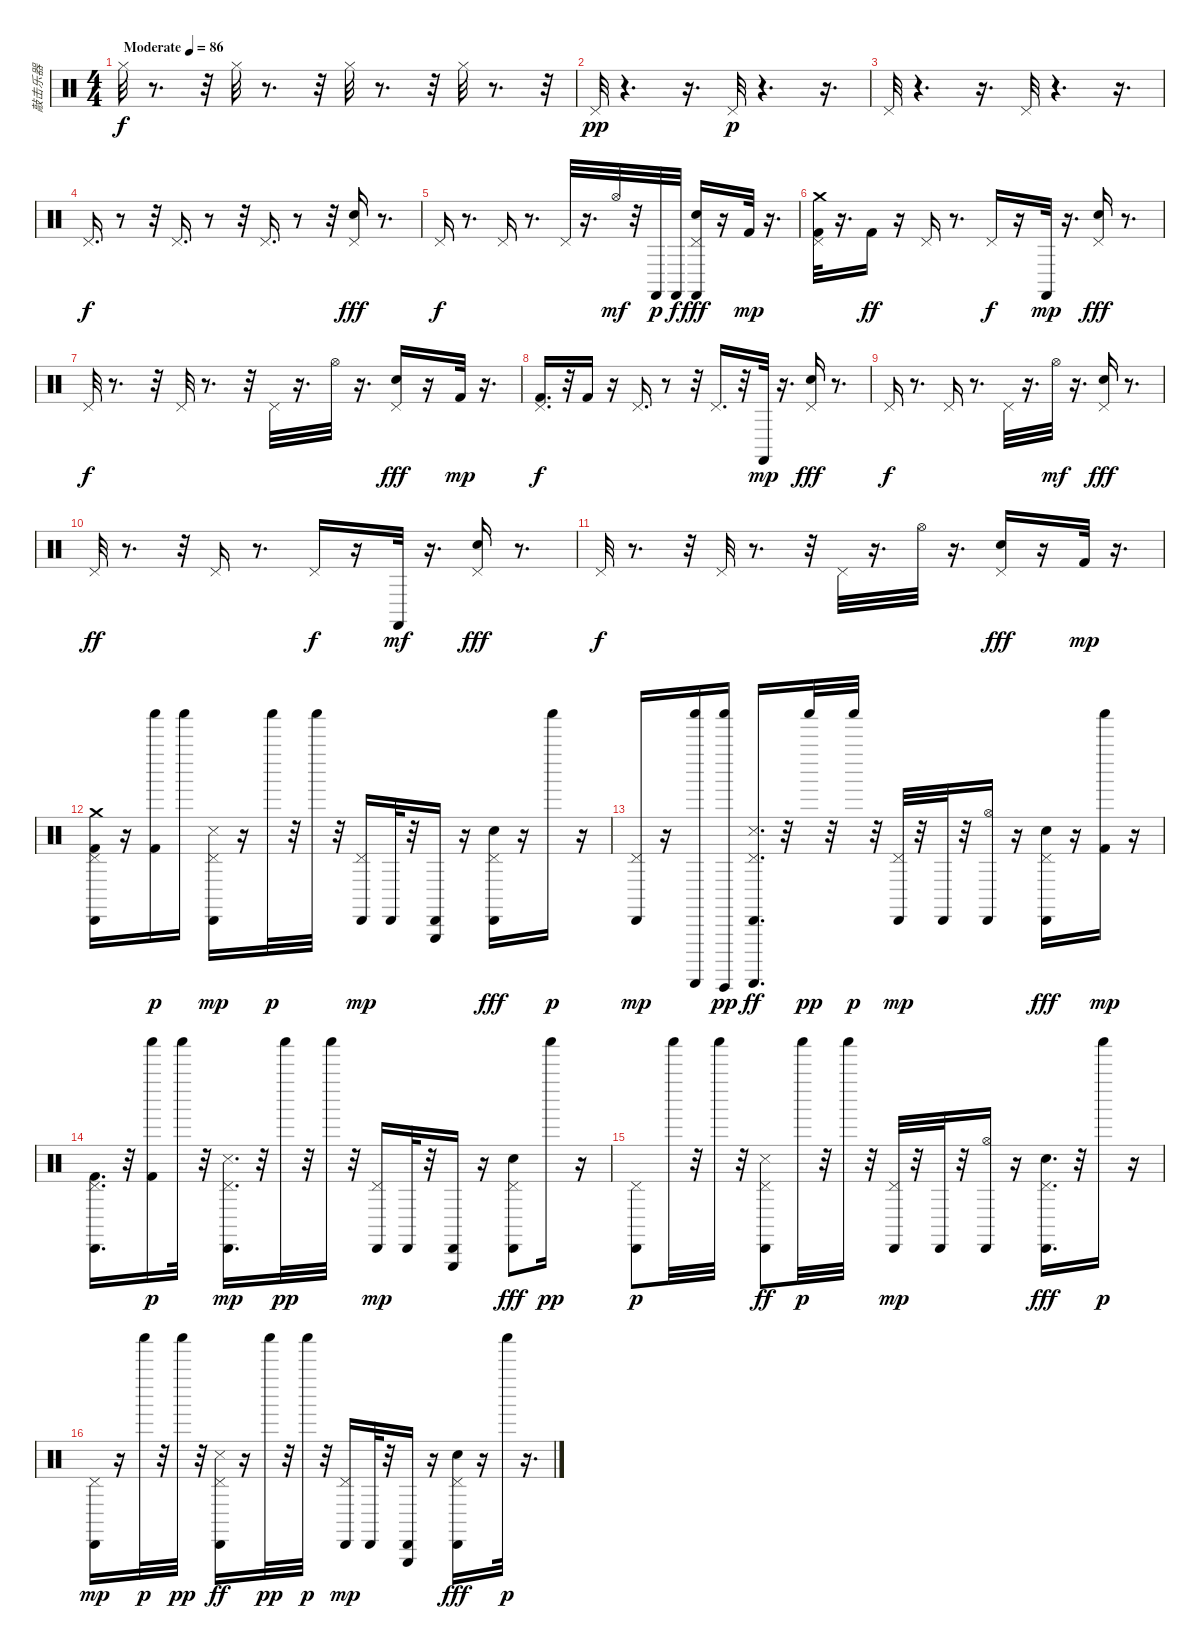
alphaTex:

\track ("敲击乐器" "敲击乐器") {instrument percussion}
\staff {score}
\articulation defaults
\ts (4 4)
\tempo (86 "Moderate")
\clef neutral
\ks c "Hi-Hat (closed)".32{dy f}
r.8{d} r.32 "Hi-Hat (closed)".32 r.8{d} r.32 "Hi-Hat (closed)".32 r.8{d} r.32 "Hi-Hat (closed)".32 r.8{d} r.32 |
"Pedal Hi-Hat (hit)".32{dy pp} r.4{d} r.16{d} "Pedal Hi-Hat (hit)".32{dy p} r.4{d} r.16{d} |
"Pedal Hi-Hat (hit)".32 r.4{d} r.16{d} "Pedal Hi-Hat (hit)".32 r.4{d} r.16{d} |
"Pedal Hi-Hat (hit)".16{d dy f} r.8 r.32 "Pedal Hi-Hat (hit)".16{d} r.8 r.32 "Pedal Hi-Hat (hit)".16{d} r.8 r.32 ("Pedal Hi-Hat (hit)" "Snare (hit)").16{dy fff} r.8{d} |
"Pedal Hi-Hat (hit)".16{dy f} r.8{d} "Pedal Hi-Hat (hit)".16 r.8{d} "Pedal Hi-Hat (hit)".32 r.16{d} "Hi-Hat (open)".32{dy mf} r.32 "Castanets (hit)".32{dy p} "Castanets (hit)".32{dy f} ("Pedal Hi-Hat (hit)" "Snare (hit)" "Castanets (hit)").16{dy fff} r.16 "Kick (hit) 2".32{dy mp} r.16{d} |
("Pedal Hi-Hat (hit)" "Crash medium (hit)" "Kick (hit) 2").32 r.16{d} "Kick (hit) 2".16{dy ff} r.16 "Pedal Hi-Hat (hit)".16 r.8{d} "Pedal Hi-Hat (hit)".16{dy f} r.16 "Castanets (hit)".32{dy mp} r.16{d} ("Pedal Hi-Hat (hit)" "Snare (hit)").16{dy fff} r.8{d} |
"Pedal Hi-Hat (hit)".32{dy f} r.8{d} r.32 "Pedal Hi-Hat (hit)".32 r.8{d} r.32 "Pedal Hi-Hat (hit)".32 r.16{d} "Hi-Hat (open)".32 r.16{d} ("Pedal Hi-Hat (hit)" "Snare (hit)").16{dy fff} r.16 "Kick (hit) 2".32{dy mp} r.16{d} |
("Pedal Hi-Hat (hit)" "Kick (hit) 2").16{d dy f} r.32 "Kick (hit) 2".16 r.16 "Pedal Hi-Hat (hit)".16{d} r.8 r.32 "Pedal Hi-Hat (hit)".16{d} r.32 "Castanets (hit)".32{dy mp} r.16{d} ("Pedal Hi-Hat (hit)" "Snare (hit)").16{dy fff} r.8{d} |
"Pedal Hi-Hat (hit)".16{dy f} r.8{d} "Pedal Hi-Hat (hit)".16 r.8{d} "Pedal Hi-Hat (hit)".32 r.16{d} "Hi-Hat (open)".32{dy mf} r.16{d} ("Pedal Hi-Hat (hit)" "Snare (hit)").16{dy fff} r.8{d} |
"Pedal Hi-Hat (hit)".32{dy ff} r.8{d} r.32 "Pedal Hi-Hat (hit)".16 r.8{d} "Pedal Hi-Hat (hit)".16{dy f} r.16 "Castanets (hit)".32{dy mf} r.16{d} ("Pedal Hi-Hat (hit)" "Snare (hit)").16{dy fff} r.8{d} |
"Pedal Hi-Hat (hit)".32{dy f} r.8{d} r.32 "Pedal Hi-Hat (hit)".32 r.8{d} r.32 "Pedal Hi-Hat (hit)".32 r.16{d} "Hi-Hat (open)".32 r.16{d} ("Pedal Hi-Hat (hit)" "Snare (hit)").16{dy fff} r.16 "Kick (hit) 2".32{dy mp} r.16{d} |
("Cabasa (hit)" "Pedal Hi-Hat (hit)" "Crash medium (hit)" "Kick (hit) 2").16 r.16 ("Shaker (hit)" "Kick (hit) 2").16{dy p} "Shaker (hit)".16 ("Pedal Hi-Hat (hit)" "Cabasa (hit)" "Snare (side stick) 3").16{dy mp} r.16 "Shaker (hit)".32{dy p} r.32 "Shaker (hit)".32 r.32 ("Pedal Hi-Hat (hit)" "Cabasa (hit)").16{dy mp} "Cabasa (hit)".32 r.32 ("Cabasa (hit)" "Triangle (hit)").16 r.16 ("Pedal Hi-Hat (hit)" "Cabasa (hit)" "Snare (hit)").16{dy fff} r.16 "Shaker (hit)".16{dy p} r.16 |
("Pedal Hi-Hat (hit)" "Cabasa (hit)").16{dy mp} r.16 ("Shaker (hit)" "Guiro (scrap-return)").16 ("Guiro (hit)" "Shaker (hit)").16{dy pp} ("Guiro (scrap-return)" "Pedal Hi-Hat (hit)" "Cabasa (hit)" "Snare (side stick) 3").16{d dy ff} r.32 "Shaker (hit)".32{dy pp} r.32 "Shaker (hit)".32{dy p} r.32 ("Pedal Hi-Hat (hit)" "Cabasa (hit)").32{dy mp} r.32 "Cabasa (hit)".32 r.32 ("Hi-Hat (open)" "Cabasa (hit)").16 r.16 ("Pedal Hi-Hat (hit)" "Cabasa (hit)" "Snare (hit)").16{dy fff} r.16 ("Shaker (hit)" "Kick (hit) 2").16{dy mp} r.16 |
("Pedal Hi-Hat (hit)" "Cabasa (hit)" "Kick (hit) 2").16{d} r.32 ("Shaker (hit)" "Kick (hit) 2").16{dy p} "Shaker (hit)".32 r.32 ("Pedal Hi-Hat (hit)" "Cabasa (hit)" "Snare (side stick) 3").16{d dy mp} r.32 "Shaker (hit)".32{dy pp} r.32 "Shaker (hit)".32 r.32 ("Pedal Hi-Hat (hit)" "Cabasa (hit)").16{dy mp} "Cabasa (hit)".32 r.32 ("Cabasa (hit)" "Triangle (hit)").16 r.16 ("Pedal Hi-Hat (hit)" "Cabasa (hit)" "Snare (hit)").8{dy fff} "Shaker (hit)".16{dy pp} r.16 |
("Pedal Hi-Hat (hit)" "Cabasa (hit)").8{dy p} "Shaker (hit)".32 r.32 "Shaker (hit)".32 r.32 ("Pedal Hi-Hat (hit)" "Cabasa (hit)" "Snare (side stick) 3").8{dy ff} "Shaker (hit)".32{dy p} r.32 "Shaker (hit)".32 r.32 ("Pedal Hi-Hat (hit)" "Cabasa (hit)").32{dy mp} r.32 "Cabasa (hit)".32 r.32 ("Hi-Hat (open)" "Cabasa (hit)").16 r.16 ("Pedal Hi-Hat (hit)" "Cabasa (hit)" "Snare (hit)").16{d dy fff} r.32 "Shaker (hit)".16{dy p} r.16 |
("Pedal Hi-Hat (hit)" "Cabasa (hit)").16{dy mp} r.16 "Shaker (hit)".32{dy p} r.32 "Shaker (hit)".32{dy pp} r.32 ("Pedal Hi-Hat (hit)" "Cabasa (hit)" "Snare (side stick) 3").16{dy ff} r.16 "Shaker (hit)".32{dy pp} r.32 "Shaker (hit)".32{dy p} r.32 ("Pedal Hi-Hat (hit)" "Cabasa (hit)").16{dy mp} "Cabasa (hit)".32 r.32 ("Triangle (hit)" "Cabasa (hit)").16 r.16 ("Pedal Hi-Hat (hit)" "Cabasa (hit)" "Snare (hit)").16{dy fff} r.16 "Shaker (hit)".32{dy p} r.16{d}
